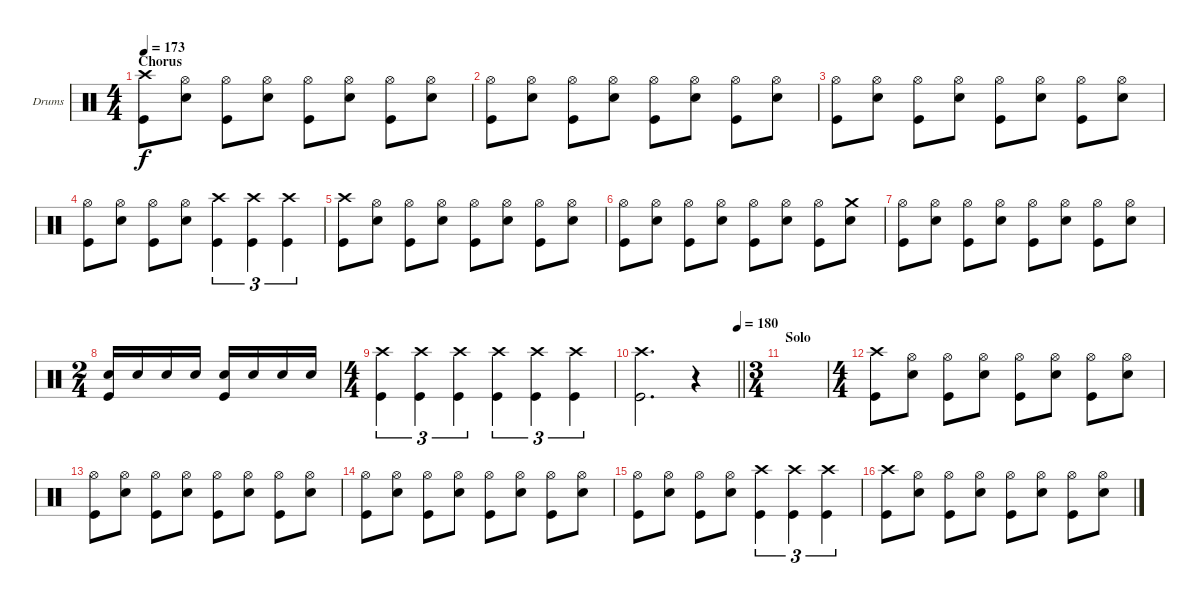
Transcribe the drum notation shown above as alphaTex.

\bracketExtendMode groupsimilarinstruments
\firstSystemTrackNameOrientation horizontal
\otherSystemsTrackNameOrientation horizontal
\track ("Drums" "Drums") {instrument percussion}
\staff {score}
\articulation defaults
\ts (4 4)
\section ("" "Chorus")
\tempo 173
\clef neutral
\ks c
("Crash high (hit)" "Kick (hit)").8{dy f} ("Hi-Hat (open)" "Snare (hit) 2").8 ("Hi-Hat (open)" "Kick (hit)").8 ("Hi-Hat (open)" "Snare (hit) 2").8 ("Hi-Hat (open)" "Kick (hit)").8 ("Hi-Hat (open)" "Snare (hit) 2").8 ("Hi-Hat (open)" "Kick (hit)").8 ("Hi-Hat (open)" "Snare (hit) 2").8 |
("Hi-Hat (open)" "Kick (hit)").8 ("Hi-Hat (open)" "Snare (hit) 2").8 ("Hi-Hat (open)" "Kick (hit)").8 ("Hi-Hat (open)" "Snare (hit) 2").8 ("Hi-Hat (open)" "Kick (hit)").8 ("Hi-Hat (open)" "Snare (hit) 2").8 ("Hi-Hat (open)" "Kick (hit)").8 ("Hi-Hat (open)" "Snare (hit) 2").8 |
("Hi-Hat (open)" "Kick (hit)").8 ("Hi-Hat (open)" "Snare (hit) 2").8 ("Hi-Hat (open)" "Kick (hit)").8 ("Hi-Hat (open)" "Snare (hit) 2").8 ("Hi-Hat (open)" "Kick (hit)").8 ("Hi-Hat (open)" "Snare (hit) 2").8 ("Hi-Hat (open)" "Kick (hit)").8 ("Hi-Hat (open)" "Snare (hit) 2").8 |
("Hi-Hat (open)" "Kick (hit)").8 ("Hi-Hat (open)" "Snare (hit) 2").8 ("Hi-Hat (open)" "Kick (hit)").8 ("Hi-Hat (open)" "Snare (hit) 2").8 ("Crash high (hit)" "Kick (hit)").4{tu (3 2)} ("Crash high (hit)" "Kick (hit)").4{tu (3 2)} ("Crash high (hit)" "Kick (hit)").4{tu (3 2)} |
("Crash high (hit)" "Kick (hit)").8 ("Hi-Hat (open)" "Snare (hit) 2").8 ("Hi-Hat (open)" "Kick (hit)").8 ("Hi-Hat (open)" "Snare (hit) 2").8 ("Hi-Hat (open)" "Kick (hit)").8 ("Hi-Hat (open)" "Snare (hit) 2").8 ("Hi-Hat (open)" "Kick (hit)").8 ("Hi-Hat (open)" "Snare (hit) 2").8 |
("Hi-Hat (open)" "Kick (hit)").8 ("Hi-Hat (open)" "Snare (hit) 2").8 ("Hi-Hat (open)" "Kick (hit)").8 ("Hi-Hat (open)" "Snare (hit) 2").8 ("Hi-Hat (open)" "Kick (hit)").8 ("Hi-Hat (open)" "Snare (hit) 2").8 ("Hi-Hat (open)" "Kick (hit)").8 ("Snare (hit) 2" "Crash medium (hit)").8 |
("Hi-Hat (open)" "Kick (hit)").8 ("Hi-Hat (open)" "Snare (hit) 2").8 ("Hi-Hat (open)" "Kick (hit)").8 ("Hi-Hat (open)" "Snare (hit) 2").8 ("Hi-Hat (open)" "Kick (hit)").8 ("Hi-Hat (open)" "Snare (hit) 2").8 ("Hi-Hat (open)" "Kick (hit)").8 ("Hi-Hat (open)" "Snare (hit) 2").8 |
\ts (2 4)
("Snare (hit) 2" "Kick (hit)").16 "Snare (hit) 2".16 "Snare (hit) 2".16 "Snare (hit) 2".16 ("Snare (hit) 2" "Kick (hit)").16 "Snare (hit) 2".16 "Snare (hit) 2".16 "Snare (hit) 2".16 |
\ts (4 4)
("Crash high (hit)" "Kick (hit)").4{tu (3 2)} ("Crash high (hit)" "Kick (hit)").4{tu (3 2)} ("Crash high (hit)" "Kick (hit)").4{tu (3 2)} ("Crash high (hit)" "Kick (hit)").4{tu (3 2)} ("Crash high (hit)" "Kick (hit)").4{tu (3 2)} ("Crash high (hit)" "Kick (hit)").4{tu (3 2)} |
\tempo (180 1)
\barLineRight lightlight
("Crash high (hit)" "Kick (hit)").2{d} r.4 |
\ts (3 4)
\section ("" "Solo")
|
\ts (4 4)
("Crash high (hit)" "Kick (hit)").8 ("Hi-Hat (open)" "Snare (hit) 2").8 ("Hi-Hat (open)" "Kick (hit)").8 ("Hi-Hat (open)" "Snare (hit) 2").8 ("Hi-Hat (open)" "Kick (hit)").8 ("Hi-Hat (open)" "Snare (hit) 2").8 ("Hi-Hat (open)" "Kick (hit)").8 ("Hi-Hat (open)" "Snare (hit) 2").8 |
("Hi-Hat (open)" "Kick (hit)").8 ("Hi-Hat (open)" "Snare (hit) 2").8 ("Hi-Hat (open)" "Kick (hit)").8 ("Hi-Hat (open)" "Snare (hit) 2").8 ("Hi-Hat (open)" "Kick (hit)").8 ("Hi-Hat (open)" "Snare (hit) 2").8 ("Hi-Hat (open)" "Kick (hit)").8 ("Hi-Hat (open)" "Snare (hit) 2").8 |
("Hi-Hat (open)" "Kick (hit)").8 ("Hi-Hat (open)" "Snare (hit) 2").8 ("Hi-Hat (open)" "Kick (hit)").8 ("Hi-Hat (open)" "Snare (hit) 2").8 ("Hi-Hat (open)" "Kick (hit)").8 ("Hi-Hat (open)" "Snare (hit) 2").8 ("Hi-Hat (open)" "Kick (hit)").8 ("Hi-Hat (open)" "Snare (hit) 2").8 |
("Hi-Hat (open)" "Kick (hit)").8 ("Hi-Hat (open)" "Snare (hit) 2").8 ("Hi-Hat (open)" "Kick (hit)").8 ("Hi-Hat (open)" "Snare (hit) 2").8 ("Crash high (hit)" "Kick (hit)").4{tu (3 2)} ("Crash high (hit)" "Kick (hit)").4{tu (3 2)} ("Crash high (hit)" "Kick (hit)").4{tu (3 2)} |
("Crash high (hit)" "Kick (hit)").8 ("Hi-Hat (open)" "Snare (hit) 2").8 ("Hi-Hat (open)" "Kick (hit)").8 ("Hi-Hat (open)" "Snare (hit) 2").8 ("Hi-Hat (open)" "Kick (hit)").8 ("Hi-Hat (open)" "Snare (hit) 2").8 ("Hi-Hat (open)" "Kick (hit)").8 ("Hi-Hat (open)" "Snare (hit) 2").8
